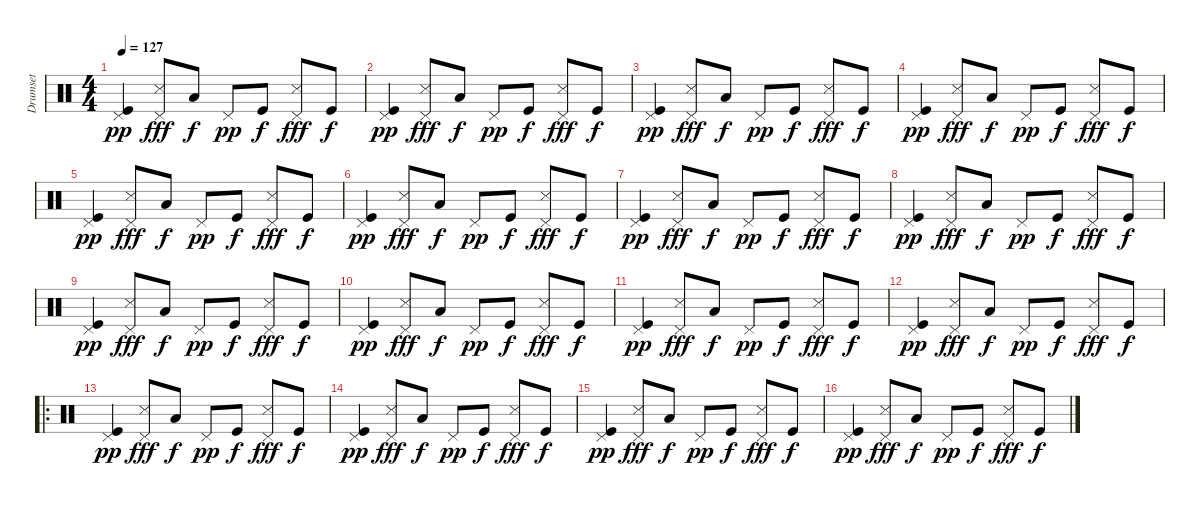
\track ("Drumset" "Drumset") {instrument percussion}
\staff {score}
\articulation defaults
\ts (4 4)
\tempo 127
\clef neutral
\ks c
("Pedal Hi-Hat (hit)" "Kick (hit)").4{dy pp} ("Pedal Hi-Hat (hit)" "Snare (side stick) 3").8{dy fff} "Low Tom (hit)".8{dy f} "Pedal Hi-Hat (hit)".8{dy pp} "Kick (hit)".8{dy f} ("Pedal Hi-Hat (hit)" "Snare (side stick) 3").8{dy fff} "Kick (hit)".8{dy f} |
("Pedal Hi-Hat (hit)" "Kick (hit)").4{dy pp} ("Pedal Hi-Hat (hit)" "Snare (side stick) 3").8{dy fff} "Low Tom (hit)".8{dy f} "Pedal Hi-Hat (hit)".8{dy pp} "Kick (hit)".8{dy f} ("Pedal Hi-Hat (hit)" "Snare (side stick) 3").8{dy fff} "Kick (hit)".8{dy f} |
("Pedal Hi-Hat (hit)" "Kick (hit)").4{dy pp} ("Pedal Hi-Hat (hit)" "Snare (side stick) 3").8{dy fff} "Low Tom (hit)".8{dy f} "Pedal Hi-Hat (hit)".8{dy pp} "Kick (hit)".8{dy f} ("Pedal Hi-Hat (hit)" "Snare (side stick) 3").8{dy fff} "Kick (hit)".8{dy f} |
("Pedal Hi-Hat (hit)" "Kick (hit)").4{dy pp} ("Pedal Hi-Hat (hit)" "Snare (side stick) 3").8{dy fff} "Low Tom (hit)".8{dy f} "Pedal Hi-Hat (hit)".8{dy pp} "Kick (hit)".8{dy f} ("Pedal Hi-Hat (hit)" "Snare (side stick) 3").8{dy fff} "Kick (hit)".8{dy f} |
("Pedal Hi-Hat (hit)" "Kick (hit)").4{dy pp} ("Pedal Hi-Hat (hit)" "Snare (side stick) 3").8{dy fff} "Low Tom (hit)".8{dy f} "Pedal Hi-Hat (hit)".8{dy pp} "Kick (hit)".8{dy f} ("Pedal Hi-Hat (hit)" "Snare (side stick) 3").8{dy fff} "Kick (hit)".8{dy f} |
("Pedal Hi-Hat (hit)" "Kick (hit)").4{dy pp} ("Pedal Hi-Hat (hit)" "Snare (side stick) 3").8{dy fff} "Low Tom (hit)".8{dy f} "Pedal Hi-Hat (hit)".8{dy pp} "Kick (hit)".8{dy f} ("Pedal Hi-Hat (hit)" "Snare (side stick) 3").8{dy fff} "Kick (hit)".8{dy f} |
("Pedal Hi-Hat (hit)" "Kick (hit)").4{dy pp} ("Pedal Hi-Hat (hit)" "Snare (side stick) 3").8{dy fff} "Low Tom (hit)".8{dy f} "Pedal Hi-Hat (hit)".8{dy pp} "Kick (hit)".8{dy f} ("Pedal Hi-Hat (hit)" "Snare (side stick) 3").8{dy fff} "Kick (hit)".8{dy f} |
("Pedal Hi-Hat (hit)" "Kick (hit)").4{dy pp} ("Pedal Hi-Hat (hit)" "Snare (side stick) 3").8{dy fff} "Low Tom (hit)".8{dy f} "Pedal Hi-Hat (hit)".8{dy pp} "Kick (hit)".8{dy f} ("Pedal Hi-Hat (hit)" "Snare (side stick) 3").8{dy fff} "Kick (hit)".8{dy f} |
("Pedal Hi-Hat (hit)" "Kick (hit)").4{dy pp} ("Pedal Hi-Hat (hit)" "Snare (side stick) 3").8{dy fff} "Low Tom (hit)".8{dy f} "Pedal Hi-Hat (hit)".8{dy pp} "Kick (hit)".8{dy f} ("Pedal Hi-Hat (hit)" "Snare (side stick) 3").8{dy fff} "Kick (hit)".8{dy f} |
("Pedal Hi-Hat (hit)" "Kick (hit)").4{dy pp} ("Pedal Hi-Hat (hit)" "Snare (side stick) 3").8{dy fff} "Low Tom (hit)".8{dy f} "Pedal Hi-Hat (hit)".8{dy pp} "Kick (hit)".8{dy f} ("Pedal Hi-Hat (hit)" "Snare (side stick) 3").8{dy fff} "Kick (hit)".8{dy f} |
("Pedal Hi-Hat (hit)" "Kick (hit)").4{dy pp} ("Pedal Hi-Hat (hit)" "Snare (side stick) 3").8{dy fff} "Low Tom (hit)".8{dy f} "Pedal Hi-Hat (hit)".8{dy pp} "Kick (hit)".8{dy f} ("Pedal Hi-Hat (hit)" "Snare (side stick) 3").8{dy fff} "Kick (hit)".8{dy f} |
("Pedal Hi-Hat (hit)" "Kick (hit)").4{dy pp} ("Pedal Hi-Hat (hit)" "Snare (side stick) 3").8{dy fff} "Low Tom (hit)".8{dy f} "Pedal Hi-Hat (hit)".8{dy pp} "Kick (hit)".8{dy f} ("Pedal Hi-Hat (hit)" "Snare (side stick) 3").8{dy fff} "Kick (hit)".8{dy f} |
\ro
("Pedal Hi-Hat (hit)" "Kick (hit)").4{dy pp} ("Pedal Hi-Hat (hit)" "Snare (side stick) 3").8{dy fff} "Low Tom (hit)".8{dy f} "Pedal Hi-Hat (hit)".8{dy pp} "Kick (hit)".8{dy f} ("Pedal Hi-Hat (hit)" "Snare (side stick) 3").8{dy fff} "Kick (hit)".8{dy f} |
("Pedal Hi-Hat (hit)" "Kick (hit)").4{dy pp} ("Pedal Hi-Hat (hit)" "Snare (side stick) 3").8{dy fff} "Low Tom (hit)".8{dy f} "Pedal Hi-Hat (hit)".8{dy pp} "Kick (hit)".8{dy f} ("Pedal Hi-Hat (hit)" "Snare (side stick) 3").8{dy fff} "Kick (hit)".8{dy f} |
("Pedal Hi-Hat (hit)" "Kick (hit)").4{dy pp} ("Pedal Hi-Hat (hit)" "Snare (side stick) 3").8{dy fff} "Low Tom (hit)".8{dy f} "Pedal Hi-Hat (hit)".8{dy pp} "Kick (hit)".8{dy f} ("Pedal Hi-Hat (hit)" "Snare (side stick) 3").8{dy fff} "Kick (hit)".8{dy f} |
("Pedal Hi-Hat (hit)" "Kick (hit)").4{dy pp} ("Pedal Hi-Hat (hit)" "Snare (side stick) 3").8{dy fff} "Low Tom (hit)".8{dy f} "Pedal Hi-Hat (hit)".8{dy pp} "Kick (hit)".8{dy f} ("Pedal Hi-Hat (hit)" "Snare (side stick) 3").8{dy fff} "Kick (hit)".8{dy f}
